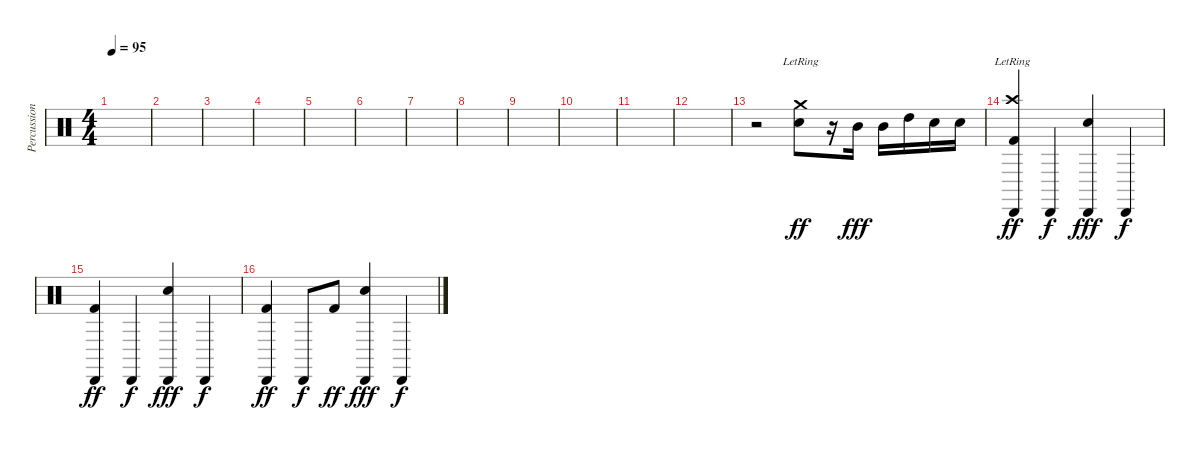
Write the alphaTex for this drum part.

\track ("Percussions" "Percussion") {instrument percussion}
\staff {score}
\articulation defaults
\ts (4 4)
\tempo 95
\clef neutral
\ks c
|
|
|
|
|
|
|
|
|
|
|
|
r.2 ("Snare (hit) 2" "Crash medium (hit)"{lr}).8{dy ff} r.16 "Mid Tom (hit)".16{dy fff} "Mid Tom (hit)".16 "High Tom (hit)".16 "Snare (hit) 2".16 "Snare (hit) 2".16 |
("Crash high (hit)"{lr} "Kick (hit) 2" "Cabasa (hit)").4{dy ff} "Cabasa (hit)".4{dy f} ("Snare (hit) 2" "Cabasa (hit)").4{dy fff} "Cabasa (hit)".4{dy f} |
("Kick (hit) 2" "Cabasa (hit)").4{dy ff} "Cabasa (hit)".4{dy f} ("Snare (hit) 2" "Cabasa (hit)").4{dy fff} "Cabasa (hit)".4{dy f} |
("Kick (hit) 2" "Cabasa (hit)").4{dy ff} "Cabasa (hit)".8{dy f} "Kick (hit) 2".8{dy ff} ("Snare (hit) 2" "Cabasa (hit)").4{dy fff} "Cabasa (hit)".4{dy f}
